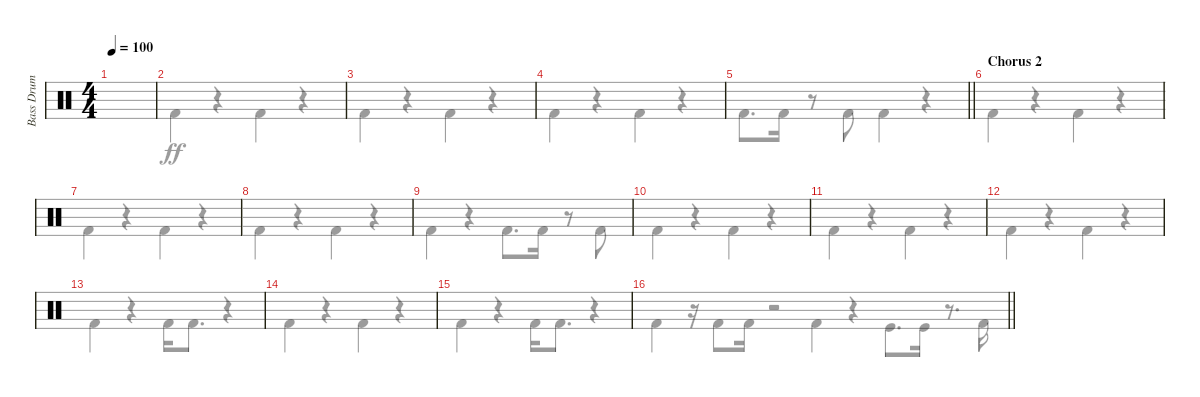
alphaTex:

\track ("Bass Drum" "Bass Drum") {instrument percussion}
\staff {score}
\articulation defaults
\voice
\ts (4 4)
\tempo 100
\clef neutral
\ks c
|
|
|
|
\barLineRight lightlight
|
\section ("" "Chorus 2")
|
|
|
|
|
|
|
|
|
|
\barLineRight lightlight
\voice
\clef neutral
\ks c "Kick (hit) 2".4{dy ff}
r.16 "Kick (hit) 2".8 "Kick (hit) 2".16 r.2 |
"Kick (hit) 2".4 r.4 "Kick (hit) 2".4 r.4 |
"Kick (hit) 2".4 r.4 "Kick (hit) 2".4 r.4 |
"Kick (hit) 2".4 r.4 "Kick (hit) 2".4 r.4 |
\barLineRight lightlight "Kick (hit) 2".8{d} "Kick (hit) 2".16
r.8 "Kick (hit) 2".8 "Kick (hit) 2".4 r.4 |
"Kick (hit) 2".4 r.4 "Kick (hit) 2".4 r.4 |
"Kick (hit) 2".4 r.4 "Kick (hit) 2".4 r.4 |
"Kick (hit) 2".4 r.4 "Kick (hit) 2".4 r.4 |
"Kick (hit) 2".4 r.4 "Kick (hit) 2".8{d} "Kick (hit) 2".16 r.8 "Kick (hit) 2".8 |
"Kick (hit) 2".4 r.4 "Kick (hit) 2".4 r.4 |
"Kick (hit) 2".4 r.4 "Kick (hit) 2".4 r.4 |
"Kick (hit) 2".4 r.4 "Kick (hit) 2".4 r.4 |
"Kick (hit) 2".4 r.4 "Kick (hit) 2".16 "Kick (hit) 2".8{d} r.4 |
"Kick (hit) 2".4 r.4 "Kick (hit) 2".4 r.4 |
"Kick (hit) 2".4 r.4 "Kick (hit) 2".16 "Kick (hit) 2".8{d} r.4 |
\barLineRight lightlight "Kick (hit) 2".4
r.4 "Kick (hit)".8{d} "Kick (hit)".16 r.8{d} "Kick (hit) 2".16
